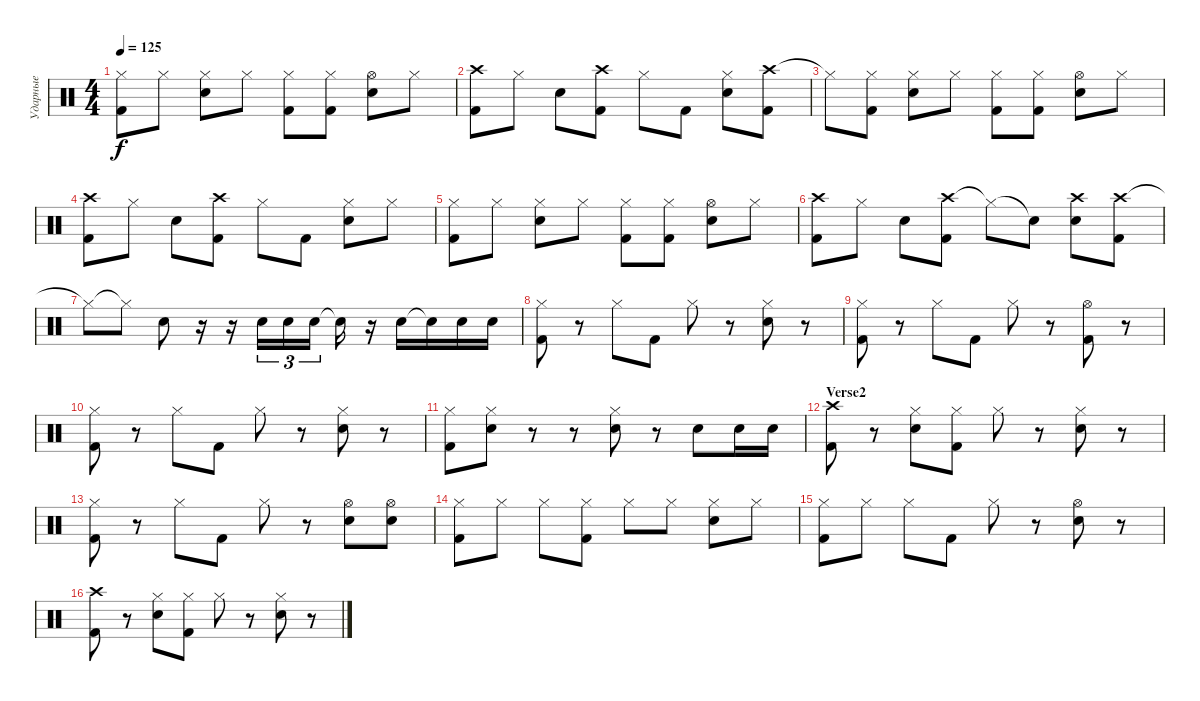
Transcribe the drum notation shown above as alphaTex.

\track ("Ударные" "Ударные") {instrument percussion}
\staff {score}
\articulation defaults
\ts (4 4)
\tempo 125
\clef neutral
\ks c
("Hi-Hat (closed)" "Kick (hit) 2").8{dy f} "Hi-Hat (closed)".8 ("Hi-Hat (closed)" "Snare (hit) 2").8 "Hi-Hat (closed)".8 ("Hi-Hat (closed)" "Kick (hit) 2").8 ("Hi-Hat (closed)" "Kick (hit) 2").8 ("Hi-Hat (open)" "Snare (hit) 2").8 "Hi-Hat (closed)".8 |
("Crash high (hit)" "Kick (hit) 2").8 "Hi-Hat (closed)".8 "Snare (hit) 2".8 ("Crash high (hit)" "Kick (hit) 2").8 "Hi-Hat (closed)".8 "Kick (hit) 2".8 ("Hi-Hat (closed)" "Snare (hit) 2").8 ("Crash high (hit)" "Kick (hit) 2").8 |
"Hi-Hat (closed)"{t}.8 ("Hi-Hat (closed)" "Kick (hit) 2").8 ("Hi-Hat (closed)" "Snare (hit) 2").8 "Hi-Hat (closed)".8 ("Hi-Hat (closed)" "Kick (hit) 2").8 ("Hi-Hat (closed)" "Kick (hit) 2").8 ("Hi-Hat (open)" "Snare (hit) 2").8 "Hi-Hat (closed)".8 |
("Crash high (hit)" "Kick (hit) 2").8 "Hi-Hat (closed)".8 "Snare (hit) 2".8 ("Crash high (hit)" "Kick (hit) 2").8 "Hi-Hat (closed)".8 "Kick (hit) 2".8 ("Hi-Hat (closed)" "Snare (hit) 2").8 "Hi-Hat (closed)".8 |
("Hi-Hat (closed)" "Kick (hit) 2").8 "Hi-Hat (closed)".8 ("Hi-Hat (closed)" "Snare (hit) 2").8 "Hi-Hat (closed)".8 ("Hi-Hat (closed)" "Kick (hit) 2").8 ("Hi-Hat (closed)" "Kick (hit) 2").8 ("Hi-Hat (open)" "Snare (hit) 2").8 "Hi-Hat (closed)".8 |
("Crash high (hit)" "Kick (hit) 2").8 "Hi-Hat (closed)".8 "Snare (hit) 2".8 ("Crash high (hit)" "Kick (hit) 2").8 "Hi-Hat (closed)"{t}.8 "Snare (hit)"{t}.8 ("Crash high (hit)" "Snare (hit) 2").8 ("Crash high (hit)" "Kick (hit) 2").8 |
"Hi-Hat (closed)"{t}.8 "Hi-Hat (closed)"{t}.8 "Snare (hit) 2".8 r.16 r.16 "Snare (hit) 2".16{tu (3 2)} "Snare (hit) 2".16{tu (3 2)} "Snare (hit) 2".16{tu (3 2)} "Snare (hit)"{t}.16 r.16 "Snare (hit) 2".16 "Snare (hit)"{t}.16 "Snare (hit) 2".16 "Snare (hit) 2".16 |
("Kick (hit) 2" "Hi-Hat (closed)").8 r.8 "Hi-Hat (closed)".8 "Kick (hit) 2".8 "Hi-Hat (closed)".8 r.8 ("Snare (hit) 2" "Hi-Hat (closed)").8 r.8 |
("Kick (hit) 2" "Hi-Hat (closed)").8 r.8 "Hi-Hat (closed)".8 "Kick (hit) 2".8 "Hi-Hat (closed)".8 r.8 ("Hi-Hat (open)" "Kick (hit) 2").8 r.8 |
("Kick (hit) 2" "Hi-Hat (closed)").8 r.8 "Hi-Hat (closed)".8 "Kick (hit) 2".8 "Hi-Hat (closed)".8 r.8 ("Snare (hit) 2" "Hi-Hat (closed)").8 r.8 |
("Kick (hit) 2" "Hi-Hat (closed)").8 ("Hi-Hat (closed)" "Snare (hit) 2").8 r.8 r.8 ("Snare (hit) 2" "Hi-Hat (closed)").8 r.8 "Snare (hit) 2".8 "Snare (hit) 2".16 "Snare (hit) 2".16 |
\section ("" "Verse2")
("Crash high (hit)" "Kick (hit) 2").8 r.8 ("Snare (hit) 2" "Hi-Hat (closed)").8 ("Hi-Hat (closed)" "Kick (hit) 2").8 "Hi-Hat (closed)".8 r.8 ("Snare (hit) 2" "Hi-Hat (closed)").8 r.8 |
("Kick (hit) 2" "Hi-Hat (closed)").8 r.8 "Hi-Hat (closed)".8 "Kick (hit) 2".8 "Hi-Hat (closed)".8 r.8 ("Snare (hit) 2" "Hi-Hat (open)").8 ("Snare (hit) 2" "Hi-Hat (open)").8 |
("Hi-Hat (closed)" "Kick (hit) 2").8 "Hi-Hat (closed)".8 "Hi-Hat (closed)".8 ("Hi-Hat (closed)" "Kick (hit) 2").8 "Hi-Hat (closed)".8 "Hi-Hat (closed)".8 ("Hi-Hat (closed)" "Snare (hit) 2").8 "Hi-Hat (closed)".8 |
("Kick (hit) 2" "Hi-Hat (closed)").8 "Hi-Hat (closed)".8 "Hi-Hat (closed)".8 "Kick (hit) 2".8 "Hi-Hat (closed)".8 r.8 ("Snare (hit) 2" "Hi-Hat (open)").8 r.8 |
("Crash high (hit)" "Kick (hit) 2").8 r.8 ("Snare (hit) 2" "Hi-Hat (closed)").8 ("Hi-Hat (closed)" "Kick (hit) 2").8 "Hi-Hat (closed)".8 r.8 ("Snare (hit) 2" "Hi-Hat (closed)").8 r.8
